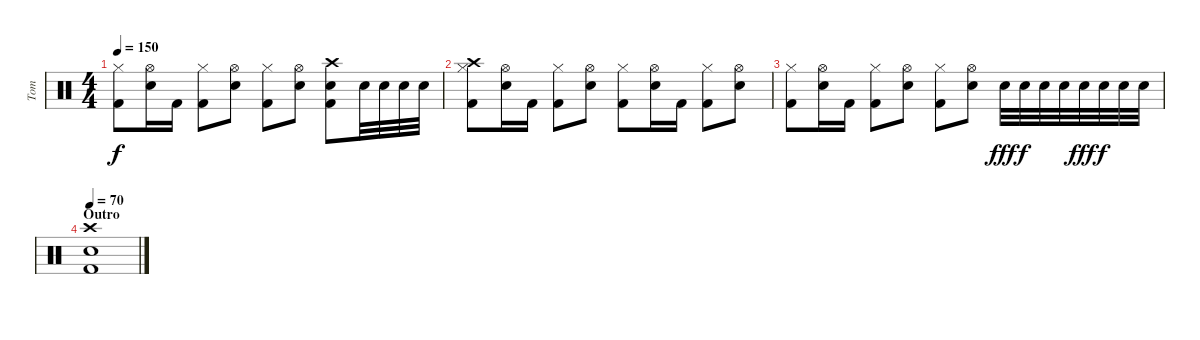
\track ("Tom" "Tom") {instrument percussion}
\staff {score}
\articulation defaults
\ts (4 4)
\tempo 150
\clef neutral
\ks c
("Hi-Hat (closed)" "Kick (hit) 2").8{dy f} ("Hi-Hat (open)" "Electric Snare (hit)").16 "Kick (hit) 2".16 ("Hi-Hat (closed)" "Kick (hit) 2").8 ("Hi-Hat (open)" "Electric Snare (hit)").8 ("Hi-Hat (closed)" "Kick (hit) 2").8 ("Hi-Hat (open)" "Electric Snare (hit)").8 ("Crash high (hit)" "Electric Snare (hit)" "Kick (hit) 2").8 "Electric Snare (hit)".32 "Electric Snare (hit)".32 "Electric Snare (hit)".32 "Electric Snare (hit)".32 |
("Crash high (hit)" "Hi-Hat (closed)" "Kick (hit) 2").8 ("Hi-Hat (open)" "Electric Snare (hit)").16 "Kick (hit) 2".16 ("Hi-Hat (closed)" "Kick (hit) 2").8 ("Hi-Hat (open)" "Electric Snare (hit)").8 ("Hi-Hat (closed)" "Kick (hit) 2").8 ("Hi-Hat (open)" "Electric Snare (hit)").16 "Kick (hit) 2".16 ("Hi-Hat (closed)" "Kick (hit) 2").8 ("Hi-Hat (open)" "Electric Snare (hit)").8 |
("Hi-Hat (closed)" "Kick (hit) 2").8 ("Hi-Hat (open)" "Electric Snare (hit)").16 "Kick (hit) 2".16 ("Hi-Hat (closed)" "Kick (hit) 2").8 ("Hi-Hat (open)" "Electric Snare (hit)").8 ("Hi-Hat (closed)" "Kick (hit) 2").8 ("Hi-Hat (open)" "Electric Snare (hit)").8 "Electric Snare (hit)".32{dy fff} "Electric Snare (hit)".32{dy f} "Electric Snare (hit)".32 "Electric Snare (hit)".32 "Electric Snare (hit)".32{dy fff} "Electric Snare (hit)".32{dy f} "Electric Snare (hit)".32 "Electric Snare (hit)".32 |
\section ("" "Outro")
\tempo 75
\tempo 70
("Crash high (hit)" "Electric Snare (hit)" "Kick (hit) 2").1
